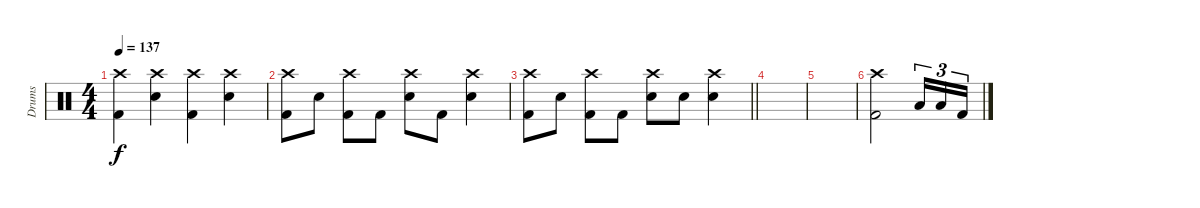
\track ("Drums" "Drums") {instrument percussion}
\staff {score}
\articulation defaults
\ts (4 4)
\tempo 137
\clef neutral
\ks c
("Crash high (hit)" "Kick (hit) 2").4{dy f} ("Crash high (hit)" "Electric Snare (hit)").4 ("Crash high (hit)" "Kick (hit) 2").4 ("Crash high (hit)" "Electric Snare (hit)").4 |
("Crash high (hit)" "Kick (hit) 2").8 "Electric Snare (hit)".8 ("Crash high (hit)" "Kick (hit) 2").8 "Kick (hit) 2".8 ("Crash high (hit)" "Electric Snare (hit)").8 "Kick (hit) 2".8 ("Crash high (hit)" "Electric Snare (hit)").4 |
\barLineRight lightlight
("Crash high (hit)" "Kick (hit) 2").8 "Electric Snare (hit)".8 ("Crash high (hit)" "Kick (hit) 2").8 "Kick (hit) 2".8 ("Crash high (hit)" "Electric Snare (hit)").8 "Electric Snare (hit)".8 ("Crash high (hit)" "Electric Snare (hit)").4 |
|
|
("Crash high (hit)" "Kick (hit) 2").2 "Low Floor Tom (hit)".16{tu (3 2)} "Low Floor Tom (hit)".16{tu (3 2)} "Kick (hit) 2".16{tu (3 2)}
